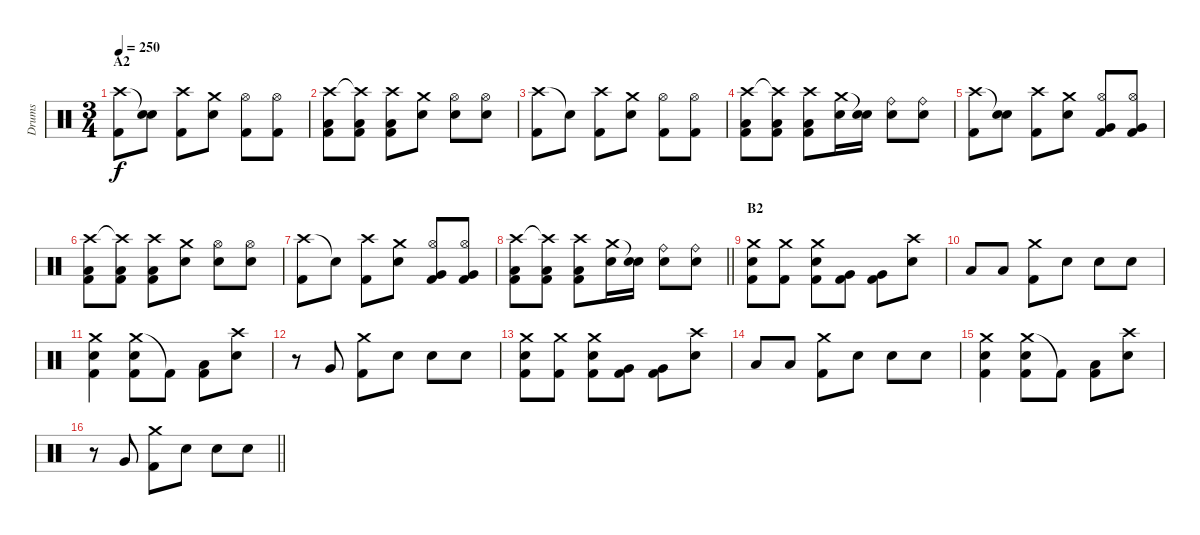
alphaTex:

\track ("Drums" "Drums") {instrument percussion}
\staff {score}
\articulation defaults
\ts (3 4)
\section ("" "A2")
\tempo 250
\clef neutral
\ks c
("Crash high (hit)" "Kick (hit) 2").8{dy f} ("Snare (hit)"{t} "Electric Snare (hit)").8 ("Crash high (hit)" "Kick (hit) 2").8 ("Crash medium (hit)" "Electric Snare (hit)").8 ("Hi-Hat (open)" "Kick (hit) 2").8 ("Hi-Hat (open)" "Kick (hit) 2").8 |
("Crash high (hit)" "Low Tom (hit)" "Kick (hit) 2").8 ("Crash high (hit)"{t} "Low Tom (hit)" "Kick (hit) 2").8 ("Crash high (hit)" "Low Tom (hit)" "Kick (hit) 2").8 ("Crash medium (hit)" "Electric Snare (hit)").8 ("Hi-Hat (open)" "Electric Snare (hit)").8 ("Hi-Hat (open)" "Electric Snare (hit)").8 |
("Crash high (hit)" "Kick (hit) 2").8 "Snare (hit)"{t}.8 ("Crash high (hit)" "Kick (hit) 2").8 ("Crash medium (hit)" "Electric Snare (hit)").8 ("Hi-Hat (open)" "Kick (hit) 2").8 ("Hi-Hat (open)" "Kick (hit) 2").8 |
("Crash high (hit)" "Low Tom (hit)" "Kick (hit) 2").8 ("Crash high (hit)"{t} "Low Tom (hit)" "Kick (hit) 2").8 ("Crash high (hit)" "Low Tom (hit)" "Kick (hit) 2").8 ("Crash medium (hit)" "Electric Snare (hit)").16 ("Snare (hit)"{t} "Electric Snare (hit)").16 ("Ride (bell)" "Electric Snare (hit)").8 ("Ride (bell)" "Electric Snare (hit)").8 |
("Crash high (hit)" "Kick (hit) 2").8 ("Snare (hit)"{t} "Electric Snare (hit)").8 ("Crash high (hit)" "Kick (hit) 2").8 ("Crash medium (hit)" "Electric Snare (hit)").8 ("Hi-Hat (open)" "Very Low Tom (hit)" "Kick (hit) 2").8 ("Hi-Hat (open)" "Very Low Tom (hit)" "Kick (hit) 2").8 |
("Crash high (hit)" "Low Tom (hit)" "Kick (hit) 2").8 ("Crash high (hit)"{t} "Low Tom (hit)" "Kick (hit) 2").8 ("Crash high (hit)" "Low Tom (hit)" "Kick (hit) 2").8 ("Crash medium (hit)" "Electric Snare (hit)").8 ("Hi-Hat (open)" "Electric Snare (hit)").8 ("Hi-Hat (open)" "Electric Snare (hit)").8 |
("Crash high (hit)" "Kick (hit) 2").8 "Snare (hit)"{t}.8 ("Crash high (hit)" "Kick (hit) 2").8 ("Crash medium (hit)" "Electric Snare (hit)").8 ("Hi-Hat (open)" "Very Low Tom (hit)" "Kick (hit) 2").8 ("Hi-Hat (open)" "Very Low Tom (hit)" "Kick (hit) 2").8 |
\barLineRight lightlight
("Crash high (hit)" "Low Tom (hit)" "Kick (hit) 2").8 ("Crash high (hit)"{t} "Low Tom (hit)" "Kick (hit) 2").8 ("Crash high (hit)" "Low Tom (hit)" "Kick (hit) 2").8 ("Crash medium (hit)" "Electric Snare (hit)").16 ("Snare (hit)"{t} "Electric Snare (hit)").16 ("Ride (bell)" "Electric Snare (hit)").8 ("Ride (bell)" "Electric Snare (hit)").8 |
\section ("" "B2")
("Crash medium (hit)" "Electric Snare (hit)" "Kick (hit) 2").8 ("Crash medium (hit)" "Kick (hit) 2").8 ("Crash medium (hit)" "Electric Snare (hit)" "Kick (hit) 2").8 ("Very Low Tom (hit)" "Kick (hit) 2").8 ("Very Low Tom (hit)" "Kick (hit) 2").8 ("Crash high (hit)" "Electric Snare (hit)").8 |
"Low Tom (hit)".8 "Low Tom (hit)".8 ("Crash medium (hit)" "Kick (hit) 2").8 "Electric Snare (hit)".8 "Electric Snare (hit)".8 "Electric Snare (hit)".8 |
("Crash medium (hit)" "Electric Snare (hit)" "Kick (hit) 2").4 ("Crash medium (hit)" "Electric Snare (hit)" "Kick (hit) 2").8 "Kick (hit) 2"{t}.8 ("Low Tom (hit)" "Kick (hit) 2").8 ("Crash high (hit)" "Electric Snare (hit)").8 |
r.8 "Very Low Tom (hit)".8 ("Crash medium (hit)" "Kick (hit) 2").8 "Electric Snare (hit)".8 "Electric Snare (hit)".8 "Electric Snare (hit)".8 |
("Crash medium (hit)" "Electric Snare (hit)" "Kick (hit) 2").8 ("Crash medium (hit)" "Kick (hit) 2").8 ("Crash medium (hit)" "Electric Snare (hit)" "Kick (hit) 2").8 ("Very Low Tom (hit)" "Kick (hit) 2").8 ("Very Low Tom (hit)" "Kick (hit) 2").8 ("Crash high (hit)" "Electric Snare (hit)").8 |
"Low Tom (hit)".8 "Low Tom (hit)".8 ("Crash medium (hit)" "Kick (hit) 2").8 "Electric Snare (hit)".8 "Electric Snare (hit)".8 "Electric Snare (hit)".8 |
("Crash medium (hit)" "Electric Snare (hit)" "Kick (hit) 2").4 ("Crash medium (hit)" "Electric Snare (hit)" "Kick (hit) 2").8 "Kick (hit) 2"{t}.8 ("Low Tom (hit)" "Kick (hit) 2").8 ("Crash high (hit)" "Electric Snare (hit)").8 |
\barLineRight lightlight
r.8 "Very Low Tom (hit)".8 ("Crash medium (hit)" "Kick (hit) 2").8 "Electric Snare (hit)".8 "Electric Snare (hit)".8 "Electric Snare (hit)".8
